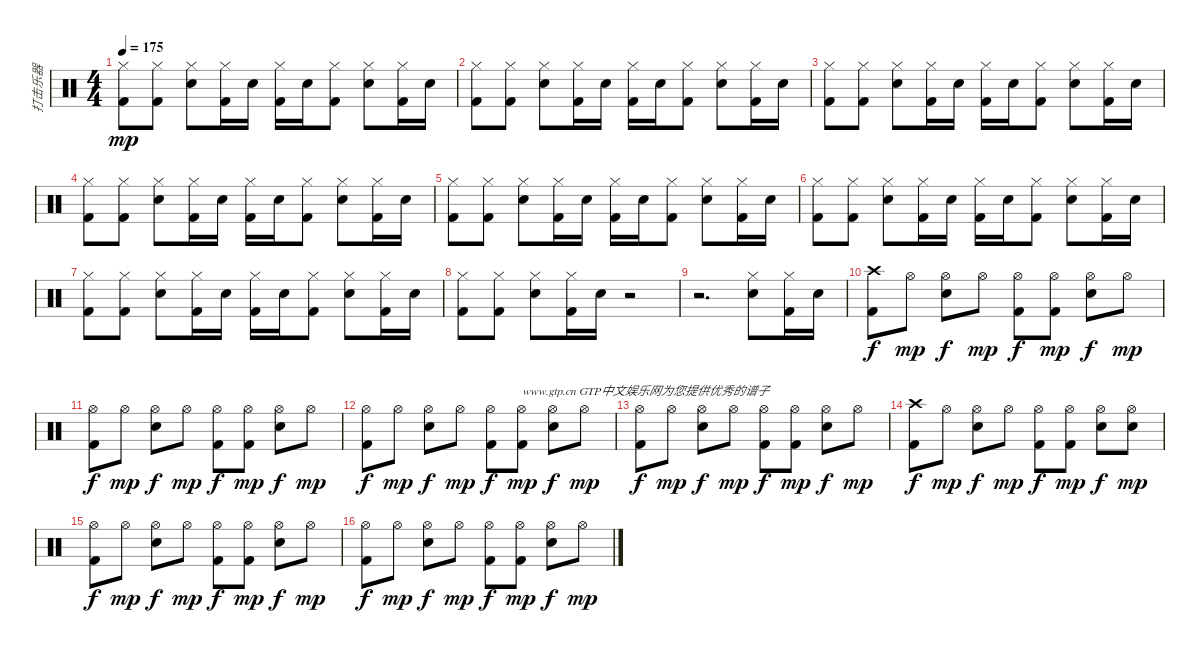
\track ("打击乐器" "打击乐器") {instrument percussion}
\staff {score}
\articulation defaults
\ts (4 4)
\tempo 175
\clef neutral
\ks c
("Hi-Hat (closed)" "Kick (hit) 2").8{dy mp} ("Hi-Hat (closed)" "Kick (hit) 2").8 ("Hi-Hat (closed)" "Electric Snare (hit)").8 ("Hi-Hat (closed)" "Kick (hit) 2").16 "Electric Snare (hit)".16 ("Hi-Hat (closed)" "Kick (hit) 2").16 "Electric Snare (hit)".16 ("Hi-Hat (closed)" "Kick (hit) 2").8 ("Hi-Hat (closed)" "Electric Snare (hit)").8 ("Hi-Hat (closed)" "Kick (hit) 2").16 "Electric Snare (hit)".16 |
("Hi-Hat (closed)" "Kick (hit) 2").8 ("Hi-Hat (closed)" "Kick (hit) 2").8 ("Hi-Hat (closed)" "Electric Snare (hit)").8 ("Hi-Hat (closed)" "Kick (hit) 2").16 "Electric Snare (hit)".16 ("Hi-Hat (closed)" "Kick (hit) 2").16 "Electric Snare (hit)".16 ("Hi-Hat (closed)" "Kick (hit) 2").8 ("Hi-Hat (closed)" "Electric Snare (hit)").8 ("Hi-Hat (closed)" "Kick (hit) 2").16 "Electric Snare (hit)".16 |
("Hi-Hat (closed)" "Kick (hit) 2").8 ("Hi-Hat (closed)" "Kick (hit) 2").8 ("Hi-Hat (closed)" "Electric Snare (hit)").8 ("Hi-Hat (closed)" "Kick (hit) 2").16 "Electric Snare (hit)".16 ("Hi-Hat (closed)" "Kick (hit) 2").16 "Electric Snare (hit)".16 ("Hi-Hat (closed)" "Kick (hit) 2").8 ("Hi-Hat (closed)" "Electric Snare (hit)").8 ("Hi-Hat (closed)" "Kick (hit) 2").16 "Electric Snare (hit)".16 |
("Hi-Hat (closed)" "Kick (hit) 2").8 ("Hi-Hat (closed)" "Kick (hit) 2").8 ("Hi-Hat (closed)" "Electric Snare (hit)").8 ("Hi-Hat (closed)" "Kick (hit) 2").16 "Electric Snare (hit)".16 ("Hi-Hat (closed)" "Kick (hit) 2").16 "Electric Snare (hit)".16 ("Hi-Hat (closed)" "Kick (hit) 2").8 ("Hi-Hat (closed)" "Electric Snare (hit)").8 ("Hi-Hat (closed)" "Kick (hit) 2").16 "Electric Snare (hit)".16 |
("Hi-Hat (closed)" "Kick (hit) 2").8 ("Hi-Hat (closed)" "Kick (hit) 2").8 ("Hi-Hat (closed)" "Electric Snare (hit)").8 ("Hi-Hat (closed)" "Kick (hit) 2").16 "Electric Snare (hit)".16 ("Hi-Hat (closed)" "Kick (hit) 2").16 "Electric Snare (hit)".16 ("Hi-Hat (closed)" "Kick (hit) 2").8 ("Hi-Hat (closed)" "Electric Snare (hit)").8 ("Hi-Hat (closed)" "Kick (hit) 2").16 "Electric Snare (hit)".16 |
("Hi-Hat (closed)" "Kick (hit) 2").8 ("Hi-Hat (closed)" "Kick (hit) 2").8 ("Hi-Hat (closed)" "Electric Snare (hit)").8 ("Hi-Hat (closed)" "Kick (hit) 2").16 "Electric Snare (hit)".16 ("Hi-Hat (closed)" "Kick (hit) 2").16 "Electric Snare (hit)".16 ("Hi-Hat (closed)" "Kick (hit) 2").8 ("Hi-Hat (closed)" "Electric Snare (hit)").8 ("Hi-Hat (closed)" "Kick (hit) 2").16 "Electric Snare (hit)".16 |
("Hi-Hat (closed)" "Kick (hit) 2").8 ("Hi-Hat (closed)" "Kick (hit) 2").8 ("Hi-Hat (closed)" "Electric Snare (hit)").8 ("Hi-Hat (closed)" "Kick (hit) 2").16 "Electric Snare (hit)".16 ("Hi-Hat (closed)" "Kick (hit) 2").16 "Electric Snare (hit)".16 ("Hi-Hat (closed)" "Kick (hit) 2").8 ("Hi-Hat (closed)" "Electric Snare (hit)").8 ("Hi-Hat (closed)" "Kick (hit) 2").16 "Electric Snare (hit)".16 |
("Hi-Hat (closed)" "Kick (hit) 2").8 ("Hi-Hat (closed)" "Kick (hit) 2").8 ("Hi-Hat (closed)" "Electric Snare (hit)").8 ("Hi-Hat (closed)" "Kick (hit) 2").16 "Electric Snare (hit)".16 r.2 |
r.2{d} ("Hi-Hat (closed)" "Electric Snare (hit)").8 ("Hi-Hat (closed)" "Kick (hit) 2").16 "Electric Snare (hit)".16 |
("Crash high (hit)" "Kick (hit) 2").8{dy f volume 16} "Hi-Hat (open)".8{dy mp} ("Hi-Hat (open)" "Electric Snare (hit)").8{dy f} "Hi-Hat (open)".8{dy mp} ("Hi-Hat (open)" "Kick (hit) 2").8{dy f} ("Hi-Hat (open)" "Kick (hit) 2").8{dy mp} ("Hi-Hat (open)" "Electric Snare (hit)").8{dy f} "Hi-Hat (open)".8{dy mp} |
("Hi-Hat (open)" "Kick (hit) 2").8{dy f} "Hi-Hat (open)".8{dy mp} ("Hi-Hat (open)" "Electric Snare (hit)").8{dy f} "Hi-Hat (open)".8{dy mp} ("Hi-Hat (open)" "Kick (hit) 2").8{dy f} ("Hi-Hat (open)" "Kick (hit) 2").8{dy mp} ("Hi-Hat (open)" "Electric Snare (hit)").8{dy f} "Hi-Hat (open)".8{dy mp} |
("Hi-Hat (open)" "Kick (hit) 2").8{dy f} "Hi-Hat (open)".8{dy mp} ("Hi-Hat (open)" "Electric Snare (hit)").8{dy f} "Hi-Hat (open)".8{dy mp} ("Hi-Hat (open)" "Kick (hit) 2").8{dy f} ("Hi-Hat (open)" "Kick (hit) 2").8{txt "www.gtp.cn GTP中文娱乐网为您提供优秀的谱子" dy mp} ("Hi-Hat (open)" "Electric Snare (hit)").8{dy f} "Hi-Hat (open)".8{dy mp} |
("Hi-Hat (open)" "Kick (hit) 2").8{dy f} "Hi-Hat (open)".8{dy mp} ("Hi-Hat (open)" "Electric Snare (hit)").8{dy f} "Hi-Hat (open)".8{dy mp} ("Hi-Hat (open)" "Kick (hit) 2").8{dy f} ("Hi-Hat (open)" "Kick (hit) 2").8{dy mp} ("Hi-Hat (open)" "Electric Snare (hit)").8{dy f} "Hi-Hat (open)".8{dy mp} |
("Crash high (hit)" "Kick (hit) 2").8{dy f} "Hi-Hat (open)".8{dy mp} ("Hi-Hat (open)" "Electric Snare (hit)").8{dy f} "Hi-Hat (open)".8{dy mp} ("Hi-Hat (open)" "Kick (hit) 2").8{dy f} ("Hi-Hat (open)" "Kick (hit) 2").8{dy mp} ("Hi-Hat (open)" "Electric Snare (hit)").8{dy f} ("Hi-Hat (open)" "Electric Snare (hit)").8{dy mp} |
("Hi-Hat (open)" "Kick (hit) 2").8{dy f} "Hi-Hat (open)".8{dy mp} ("Hi-Hat (open)" "Electric Snare (hit)").8{dy f} "Hi-Hat (open)".8{dy mp} ("Hi-Hat (open)" "Kick (hit) 2").8{dy f} ("Hi-Hat (open)" "Kick (hit) 2").8{dy mp} ("Hi-Hat (open)" "Electric Snare (hit)").8{dy f} "Hi-Hat (open)".8{dy mp} |
("Hi-Hat (open)" "Kick (hit) 2").8{dy f} "Hi-Hat (open)".8{dy mp} ("Hi-Hat (open)" "Electric Snare (hit)").8{dy f} "Hi-Hat (open)".8{dy mp} ("Hi-Hat (open)" "Kick (hit) 2").8{dy f} ("Hi-Hat (open)" "Kick (hit) 2").8{dy mp} ("Hi-Hat (open)" "Electric Snare (hit)").8{dy f} "Hi-Hat (open)".8{dy mp}
